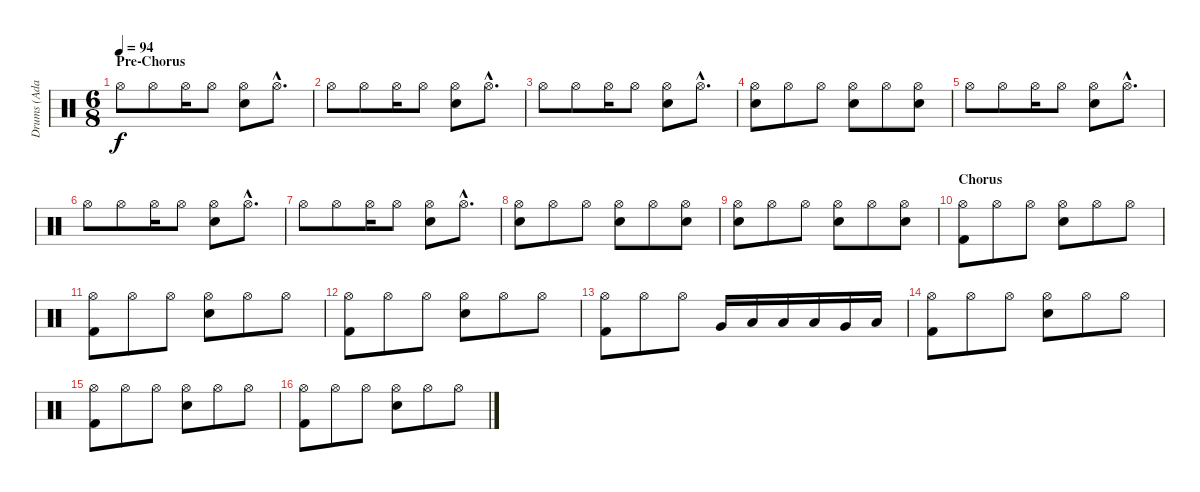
\track ("Drums (Adam)" "Drums (Ada") {instrument percussion}
\staff {score}
\articulation defaults
\ts (6 8)
\section ("" "Pre-Chorus")
\tempo 94
\clef neutral
\ks c "Hi-Hat (open)".8{dy f} "Hi-Hat (open)".8 "Hi-Hat (open)".16 "Hi-Hat (open)".8
("Hi-Hat (open)" "Snare (hit) 2").8 "Hi-Hat (open)"{hac}.8{d} |
"Hi-Hat (open)".8 "Hi-Hat (open)".8 "Hi-Hat (open)".16 "Hi-Hat (open)".8 ("Hi-Hat (open)" "Snare (hit) 2").8 "Hi-Hat (open)"{hac}.8{d} |
"Hi-Hat (open)".8 "Hi-Hat (open)".8 "Hi-Hat (open)".16 "Hi-Hat (open)".8 ("Hi-Hat (open)" "Snare (hit) 2").8 "Hi-Hat (open)"{hac}.8{d} |
("Hi-Hat (open)" "Snare (hit) 2").8 "Hi-Hat (open)".8 "Hi-Hat (open)".8 ("Hi-Hat (open)" "Snare (hit) 2").8 "Hi-Hat (open)".8 ("Hi-Hat (open)" "Snare (hit) 2").8 |
"Hi-Hat (open)".8 "Hi-Hat (open)".8 "Hi-Hat (open)".16 "Hi-Hat (open)".8 ("Hi-Hat (open)" "Snare (hit) 2").8 "Hi-Hat (open)"{hac}.8{d} |
"Hi-Hat (open)".8 "Hi-Hat (open)".8 "Hi-Hat (open)".16 "Hi-Hat (open)".8 ("Hi-Hat (open)" "Snare (hit) 2").8 "Hi-Hat (open)"{hac}.8{d} |
"Hi-Hat (open)".8 "Hi-Hat (open)".8 "Hi-Hat (open)".16 "Hi-Hat (open)".8 ("Hi-Hat (open)" "Snare (hit) 2").8 "Hi-Hat (open)"{hac}.8{d} |
("Hi-Hat (open)" "Snare (hit) 2").8 "Hi-Hat (open)".8 "Hi-Hat (open)".8 ("Hi-Hat (open)" "Snare (hit) 2").8 "Hi-Hat (open)".8 ("Hi-Hat (open)" "Snare (hit) 2").8 |
("Hi-Hat (open)" "Snare (hit) 2").8 "Hi-Hat (open)".8 "Hi-Hat (open)".8 ("Hi-Hat (open)" "Snare (hit) 2").8 "Hi-Hat (open)".8 ("Hi-Hat (open)" "Snare (hit) 2").8 |
\section ("" "Chorus")
("Hi-Hat (open)" "Kick (hit) 2").8 "Hi-Hat (open)".8 "Hi-Hat (open)".8 ("Hi-Hat (open)" "Snare (hit) 2").8 "Hi-Hat (open)".8 "Hi-Hat (open)".8 |
("Hi-Hat (open)" "Kick (hit) 2").8 "Hi-Hat (open)".8 "Hi-Hat (open)".8 ("Hi-Hat (open)" "Snare (hit) 2").8 "Hi-Hat (open)".8 "Hi-Hat (open)".8 |
("Hi-Hat (open)" "Kick (hit) 2").8 "Hi-Hat (open)".8 "Hi-Hat (open)".8 ("Hi-Hat (open)" "Snare (hit) 2").8 "Hi-Hat (open)".8 "Hi-Hat (open)".8 |
("Hi-Hat (open)" "Kick (hit) 2").8 "Hi-Hat (open)".8 "Hi-Hat (open)".8 "Very Low Tom (hit)".16 "Low Floor Tom (hit)".16 "Low Tom (hit)".16 "Low Floor Tom (hit)".16 "Very Low Tom (hit)".16 "Low Floor Tom (hit)".16 |
("Hi-Hat (open)" "Kick (hit) 2").8 "Hi-Hat (open)".8 "Hi-Hat (open)".8 ("Hi-Hat (open)" "Snare (hit) 2").8 "Hi-Hat (open)".8 "Hi-Hat (open)".8 |
("Hi-Hat (open)" "Kick (hit) 2").8 "Hi-Hat (open)".8 "Hi-Hat (open)".8 ("Hi-Hat (open)" "Snare (hit) 2").8 "Hi-Hat (open)".8 "Hi-Hat (open)".8 |
("Hi-Hat (open)" "Kick (hit) 2").8 "Hi-Hat (open)".8 "Hi-Hat (open)".8 ("Hi-Hat (open)" "Snare (hit) 2").8 "Hi-Hat (open)".8 "Hi-Hat (open)".8
